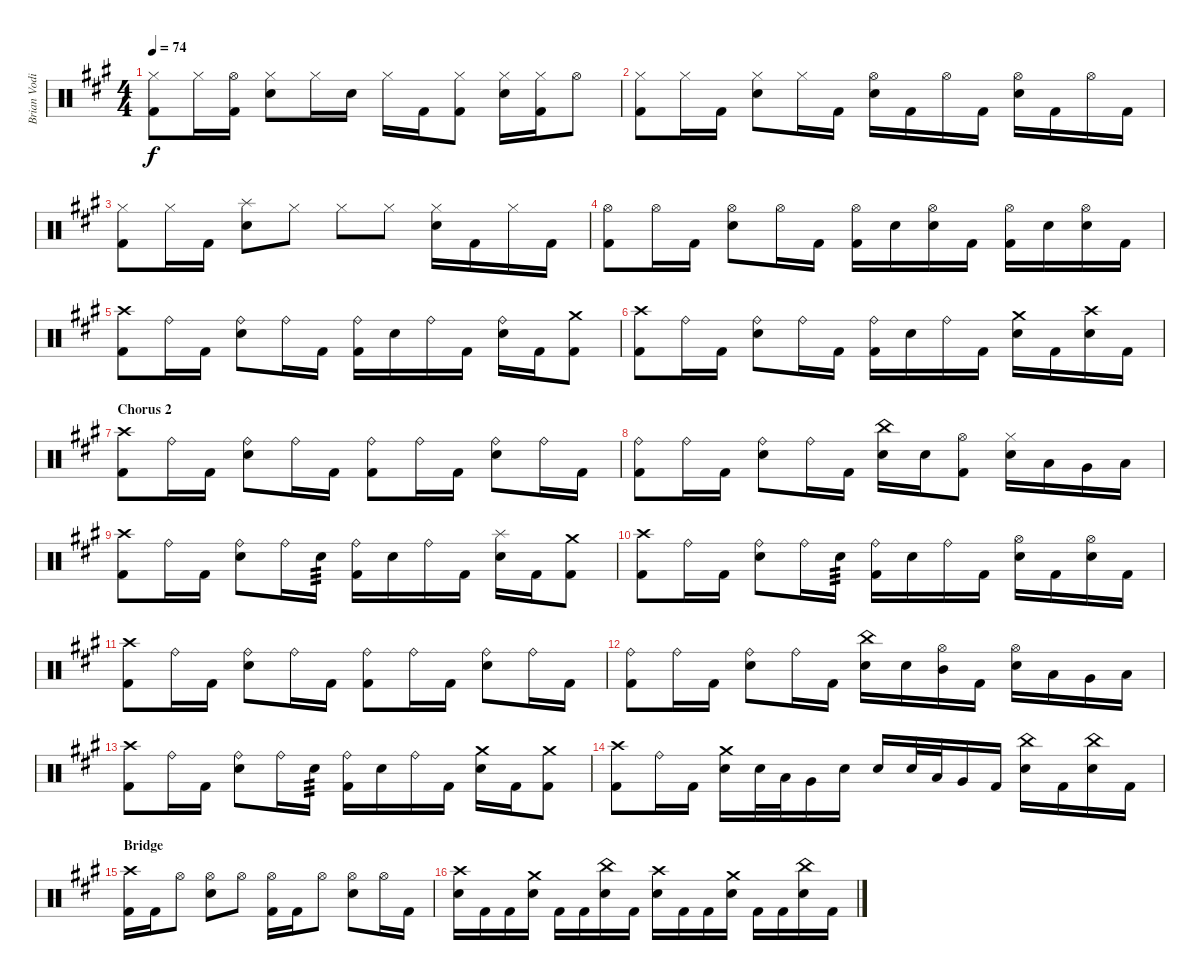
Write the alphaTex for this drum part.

\track ("Brian Vodinh" "Brian Vodi") {instrument percussion}
\staff {score}
\articulation defaults
\ts (4 4)
\tempo 74
\clef neutral
\ks f#minor
("Hi-Hat (closed)" "Kick (hit) 2").8{dy f} "Hi-Hat (closed)".16 ("Hi-Hat (open)" "Kick (hit) 2").16 ("Hi-Hat (closed)" "Electric Snare (hit)").8 "Hi-Hat (closed)".16 "Electric Snare (hit)".16 "Hi-Hat (closed)".16 "Kick (hit) 2".16 ("Hi-Hat (closed)" "Kick (hit) 2").8 ("Hi-Hat (closed)" "Electric Snare (hit)").16 ("Hi-Hat (closed)" "Kick (hit) 2").16 "Hi-Hat (open)".8 |
("Hi-Hat (closed)" "Kick (hit) 2").8 "Hi-Hat (closed)".16 "Kick (hit) 2".16 ("Hi-Hat (closed)" "Electric Snare (hit)").8 "Hi-Hat (closed)".16 "Kick (hit) 2".16 ("Hi-Hat (open)" "Electric Snare (hit)").16 "Kick (hit) 2".16 "Hi-Hat (open)".16 "Kick (hit) 2".16 ("Hi-Hat (open)" "Electric Snare (hit)").16 "Kick (hit) 2".16 "Hi-Hat (open)".16 "Kick (hit) 2".16 |
("Hi-Hat (closed)" "Kick (hit) 2").8 "Hi-Hat (closed)".16 "Kick (hit) 2".16 ("Splash (hit)" "Electric Snare (hit)").8 "Hi-Hat (closed)".8 "Hi-Hat (closed)".8 "Hi-Hat (closed)".8 ("Hi-Hat (closed)" "Electric Snare (hit)").16 "Kick (hit) 2".16 "Hi-Hat (closed)".16 "Kick (hit) 2".16 |
("Hi-Hat (open)" "Kick (hit) 2").8 "Hi-Hat (open)".16 "Kick (hit) 2".16 ("Hi-Hat (open)" "Electric Snare (hit)").8 "Hi-Hat (open)".16 "Kick (hit) 2".16 ("Hi-Hat (open)" "Kick (hit) 2").16 "Electric Snare (hit)".16 ("Hi-Hat (open)" "Electric Snare (hit)").16 "Kick (hit) 2".16 ("Hi-Hat (open)" "Kick (hit) 2").16 "Electric Snare (hit)".16 ("Hi-Hat (open)" "Electric Snare (hit)").16 "Kick (hit) 2".16 |
("Crash high (hit)" "Kick (hit) 2").8 "Ride (bell)".16 "Kick (hit) 2".16 ("Ride (bell)" "Electric Snare (hit)").8 "Ride (bell)".16 "Kick (hit) 2".16 ("Ride (bell)" "Kick (hit) 2").16 "Electric Snare (hit)".16 "Ride (bell)".16 "Kick (hit) 2".16 ("Ride (bell)" "Electric Snare (hit)").16 "Kick (hit) 2".16 ("Crash medium (hit)" "Kick (hit) 2").8 |
("Crash high (hit)" "Kick (hit) 2").8 "Ride (bell)".16 "Kick (hit) 2".16 ("Ride (bell)" "Electric Snare (hit)").8 "Ride (bell)".16 "Kick (hit) 2".16 ("Ride (bell)" "Kick (hit) 2").16 "Electric Snare (hit)".16 "Ride (bell)".16 "Kick (hit) 2".16 ("Crash medium (hit)" "Electric Snare (hit)").16 "Kick (hit) 2".16 ("Crash high (hit)" "Electric Snare (hit)").16 "Kick (hit) 2".16 |
\section ("" "Chorus 2")
("Crash high (hit)" "Kick (hit) 2").8 "Ride (bell)".16 "Kick (hit) 2".16 ("Ride (bell)" "Electric Snare (hit)").8 "Ride (bell)".16 "Kick (hit) 2".16 ("Ride (bell)" "Kick (hit) 2").8 "Ride (bell)".16 "Kick (hit) 2".16 ("Ride (bell)" "Electric Snare (hit)").8 "Ride (bell)".16 "Kick (hit) 2".16 |
("Ride (bell)" "Kick (hit) 2").8 "Ride (bell)".16 "Kick (hit) 2".16 ("Ride (bell)" "Electric Snare (hit)").8 "Ride (bell)".16 "Kick (hit) 2".16 ("China (hit)" "Electric Snare (hit)").16 "Electric Snare (hit)".16 ("Hi-Hat (open)" "Kick (hit) 2").8 ("Hi-Hat (closed)" "Electric Snare (hit)").16 "Low Tom (hit)".16 "Very Low Tom (hit)".16 "Low Floor Tom (hit)".16 |
("Crash high (hit)" "Kick (hit) 2").8 "Ride (bell)".16 "Kick (hit) 2".16 ("Ride (bell)" "Electric Snare (hit)").8 "Ride (bell)".16 "Electric Snare (hit)".16{tp 3} ("Ride (bell)" "Kick (hit) 2").16 "Electric Snare (hit)".16 "Ride (bell)".16 "Kick (hit) 2".16 ("Splash (hit)" "Electric Snare (hit)").16 "Kick (hit) 2".16 ("Crash medium (hit)" "Kick (hit) 2").8 |
("Crash high (hit)" "Kick (hit) 2").8 "Ride (bell)".16 "Kick (hit) 2".16 ("Ride (bell)" "Electric Snare (hit)").8 "Ride (bell)".16 "Electric Snare (hit)".16{tp 3} ("Ride (bell)" "Kick (hit) 2").16 "Electric Snare (hit)".16 "Ride (bell)".16 "Kick (hit) 2".16 ("Hi-Hat (open)" "Electric Snare (hit)").16 "Kick (hit) 2".16 ("Hi-Hat (open)" "Electric Snare (hit)").16 "Kick (hit) 2".16 |
("Crash high (hit)" "Kick (hit) 2").8 "Ride (bell)".16 "Kick (hit) 2".16 ("Ride (bell)" "Electric Snare (hit)").8 "Ride (bell)".16 "Kick (hit) 2".16 ("Ride (bell)" "Kick (hit) 2").8 "Ride (bell)".16 "Kick (hit) 2".16 ("Ride (bell)" "Electric Snare (hit)").8 "Ride (bell)".16 "Kick (hit) 2".16 |
("Ride (bell)" "Kick (hit) 2").8 "Ride (bell)".16 "Kick (hit) 2".16 ("Ride (bell)" "Electric Snare (hit)").8 "Ride (bell)".16 "Kick (hit) 2".16 ("China (hit)" "Electric Snare (hit)").16 "Electric Snare (hit)".16 ("Hi-Hat (open)" "Mid Tom (hit)").16 "Kick (hit) 2".16 ("Hi-Hat (open)" "Electric Snare (hit)").16 "Low Tom (hit)".16 "Very Low Tom (hit)".16 "Low Floor Tom (hit)".16 |
("Crash high (hit)" "Kick (hit) 2").8 "Ride (bell)".16 "Kick (hit) 2".16 ("Ride (bell)" "Electric Snare (hit)").8 "Ride (bell)".16 "Electric Snare (hit)".16{tp 3} ("Ride (bell)" "Kick (hit) 2").16 "Electric Snare (hit)".16 "Ride (bell)".16 "Kick (hit) 2".16 ("Crash medium (hit)" "Electric Snare (hit)").16 "Kick (hit) 2".16 ("Crash medium (hit)" "Kick (hit) 2").8 |
("Crash high (hit)" "Kick (hit) 2").8 "Ride (bell)".16 "Kick (hit) 2".16 ("Crash medium (hit)" "Electric Snare (hit)").16 "Electric Snare (hit)".32 "Low Tom (hit)".32 "Very Low Tom (hit)".16 "Electric Snare (hit)".16 "Electric Snare (hit)".16 "Electric Snare (hit)".32 "Low Tom (hit)".32 "Very Low Tom (hit)".16 "Kick (hit) 2".16 ("China (hit)" "Electric Snare (hit)").16 "Kick (hit) 2".16 ("China (hit)" "Electric Snare (hit)").16 "Kick (hit) 2".16 |
\section ("" "Bridge")
("Crash high (hit)" "Kick (hit) 2").16 "Kick (hit) 2".16 "Hi-Hat (open)".8 ("Hi-Hat (open)" "Electric Snare (hit)").8 "Hi-Hat (open)".8 ("Hi-Hat (open)" "Kick (hit) 2").16 "Kick (hit) 2".16 "Hi-Hat (open)".8 ("Hi-Hat (open)" "Electric Snare (hit)").8 "Hi-Hat (open)".16 "Kick (hit) 2".16 |
("Crash high (hit)" "Electric Snare (hit)").16 "Kick (hit) 2".16 "Kick (hit) 2".16 ("Crash medium (hit)" "Electric Snare (hit)").16 "Kick (hit) 2".16 "Kick (hit) 2".16 ("China (hit)" "Electric Snare (hit)").16 "Kick (hit) 2".16 ("Crash high (hit)" "Electric Snare (hit)").16 "Kick (hit) 2".16 "Kick (hit) 2".16 ("Crash medium (hit)" "Electric Snare (hit)").16 "Kick (hit) 2".16 "Kick (hit) 2".16 ("China (hit)" "Electric Snare (hit)").16 "Kick (hit) 2".16
